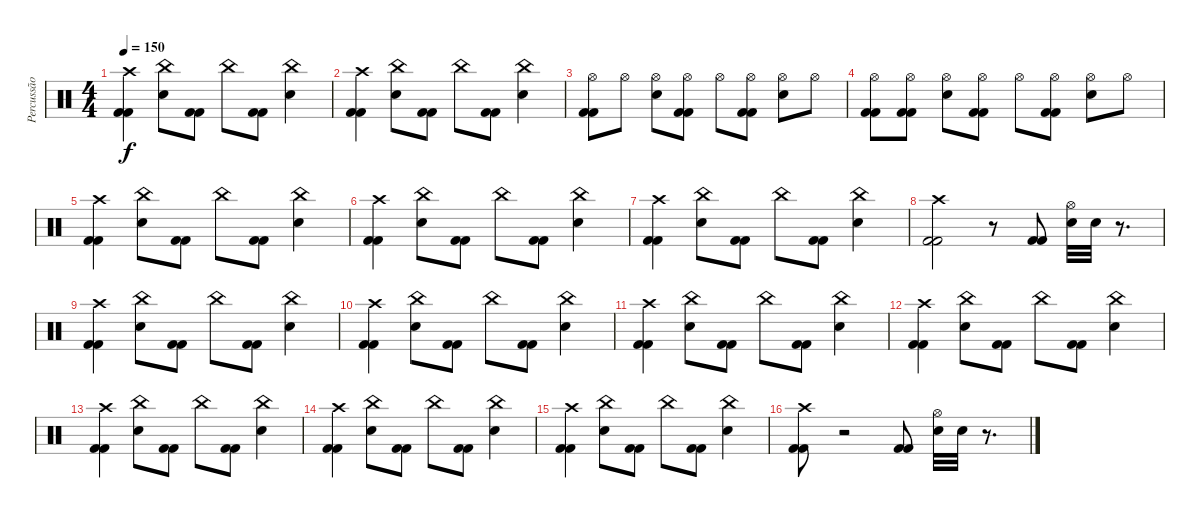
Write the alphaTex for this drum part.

\track ("Percussão" "Percussão") {instrument percussion}
\staff {score}
\articulation defaults
\ts (4 4)
\tempo 150
\clef neutral
\ks c
("Crash high (hit)" "Kick (hit) 2" "Kick (hit) 2").4{dy f} ("China (hit)" "Electric Snare (hit)").8 ("Kick (hit) 2" "Kick (hit) 2").8 "China (hit)".8 ("Kick (hit) 2" "Kick (hit) 2").8 ("China (hit)" "Electric Snare (hit)").4 |
("Crash high (hit)" "Kick (hit) 2" "Kick (hit) 2").4 ("China (hit)" "Electric Snare (hit)").8 ("Kick (hit) 2" "Kick (hit) 2").8 "China (hit)".8 ("Kick (hit) 2" "Kick (hit) 2").8 ("China (hit)" "Electric Snare (hit)").4 |
("Hi-Hat (open)" "Kick (hit) 2" "Kick (hit) 2").8 "Hi-Hat (open)".8 ("Hi-Hat (open)" "Electric Snare (hit)").8 ("Hi-Hat (open)" "Kick (hit) 2" "Kick (hit) 2").8 "Hi-Hat (open)".8 ("Hi-Hat (open)" "Kick (hit) 2" "Kick (hit) 2").8 ("Hi-Hat (open)" "Electric Snare (hit)").8 "Hi-Hat (open)".8 |
("Hi-Hat (open)" "Kick (hit) 2" "Kick (hit) 2").8 ("Hi-Hat (open)" "Kick (hit) 2" "Kick (hit) 2").8 ("Hi-Hat (open)" "Electric Snare (hit)").8 ("Hi-Hat (open)" "Kick (hit) 2" "Kick (hit) 2").8 "Hi-Hat (open)".8 ("Hi-Hat (open)" "Kick (hit) 2" "Kick (hit) 2").8 ("Hi-Hat (open)" "Electric Snare (hit)").8 "Hi-Hat (open)".8 |
("Crash high (hit)" "Kick (hit) 2" "Kick (hit) 2").4 ("China (hit)" "Electric Snare (hit)").8 ("Kick (hit) 2" "Kick (hit) 2").8 "China (hit)".8 ("Kick (hit) 2" "Kick (hit) 2").8 ("China (hit)" "Electric Snare (hit)").4 |
("Crash high (hit)" "Kick (hit) 2" "Kick (hit) 2").4 ("China (hit)" "Electric Snare (hit)").8 ("Kick (hit) 2" "Kick (hit) 2").8 "China (hit)".8 ("Kick (hit) 2" "Kick (hit) 2").8 ("China (hit)" "Electric Snare (hit)").4 |
("Crash high (hit)" "Kick (hit) 2" "Kick (hit) 2").4 ("China (hit)" "Electric Snare (hit)").8 ("Kick (hit) 2" "Kick (hit) 2").8 "China (hit)".8 ("Kick (hit) 2" "Kick (hit) 2").8 ("China (hit)" "Electric Snare (hit)").4 |
("Crash high (hit)" "Kick (hit) 2" "Kick (hit) 2").2 r.8 ("Kick (hit) 2" "Kick (hit) 2").8 ("Hi-Hat (open)" "Electric Snare (hit)").32 "Electric Snare (hit)".32 r.8{d} |
("Crash high (hit)" "Kick (hit) 2" "Kick (hit) 2").4 ("China (hit)" "Electric Snare (hit)").8 ("Kick (hit) 2" "Kick (hit) 2").8 "China (hit)".8 ("Kick (hit) 2" "Kick (hit) 2").8 ("China (hit)" "Electric Snare (hit)").4 |
("Crash high (hit)" "Kick (hit) 2" "Kick (hit) 2").4 ("China (hit)" "Electric Snare (hit)").8 ("Kick (hit) 2" "Kick (hit) 2").8 "China (hit)".8 ("Kick (hit) 2" "Kick (hit) 2").8 ("China (hit)" "Electric Snare (hit)").4 |
("Crash high (hit)" "Kick (hit) 2" "Kick (hit) 2").4 ("China (hit)" "Electric Snare (hit)").8 ("Kick (hit) 2" "Kick (hit) 2").8 "China (hit)".8 ("Kick (hit) 2" "Kick (hit) 2").8 ("China (hit)" "Electric Snare (hit)").4 |
("Crash high (hit)" "Kick (hit) 2" "Kick (hit) 2").4 ("China (hit)" "Electric Snare (hit)").8 ("Kick (hit) 2" "Kick (hit) 2").8 "China (hit)".8 ("Kick (hit) 2" "Kick (hit) 2").8 ("China (hit)" "Electric Snare (hit)").4 |
("Crash high (hit)" "Kick (hit) 2" "Kick (hit) 2").4 ("China (hit)" "Electric Snare (hit)").8 ("Kick (hit) 2" "Kick (hit) 2").8 "China (hit)".8 ("Kick (hit) 2" "Kick (hit) 2").8 ("China (hit)" "Electric Snare (hit)").4 |
("Crash high (hit)" "Kick (hit) 2" "Kick (hit) 2").4 ("China (hit)" "Electric Snare (hit)").8 ("Kick (hit) 2" "Kick (hit) 2").8 "China (hit)".8 ("Kick (hit) 2" "Kick (hit) 2").8 ("China (hit)" "Electric Snare (hit)").4 |
("Crash high (hit)" "Kick (hit) 2" "Kick (hit) 2").4 ("China (hit)" "Electric Snare (hit)").8 ("Kick (hit) 2" "Kick (hit) 2").8 "China (hit)".8 ("Kick (hit) 2" "Kick (hit) 2").8 ("China (hit)" "Electric Snare (hit)").4 |
("Crash high (hit)" "Kick (hit) 2" "Kick (hit) 2").8 r.2 ("Kick (hit) 2" "Kick (hit) 2").8 ("Hi-Hat (open)" "Electric Snare (hit)").32 "Electric Snare (hit)".32 r.8{d}
